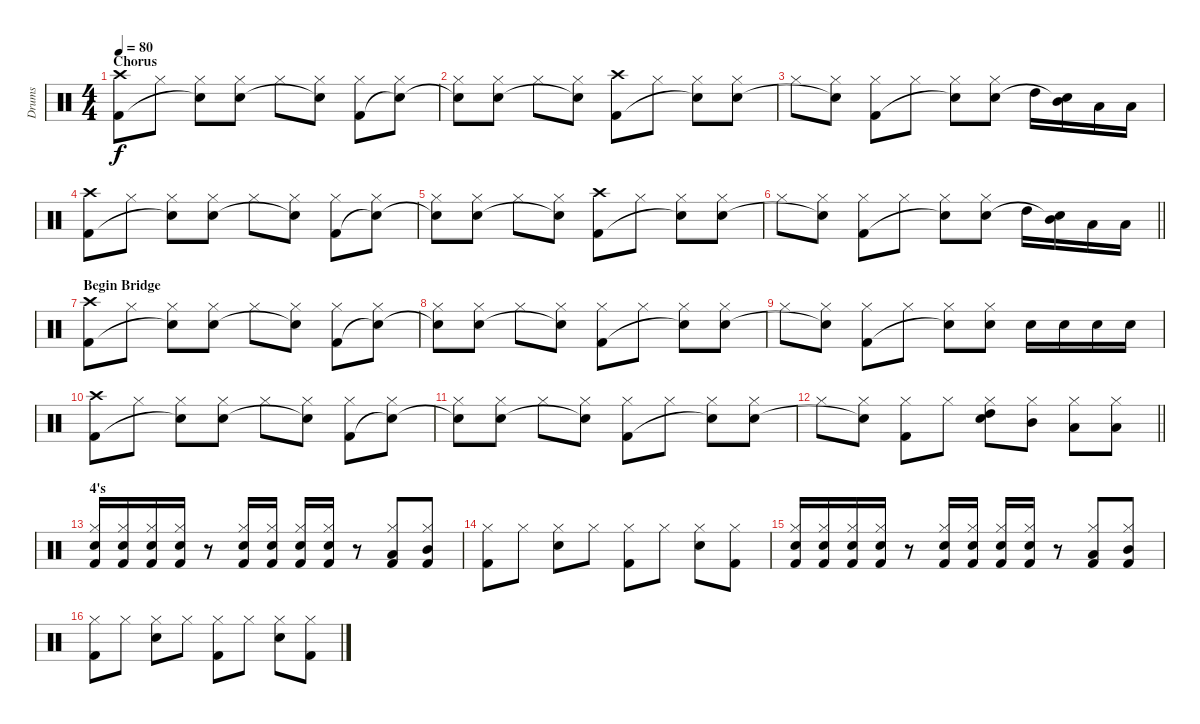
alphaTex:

\track ("Drums" "Drums") {instrument percussion}
\staff {score}
\articulation defaults
\ts (4 4)
\section ("" "Chorus")
\tempo 80
\clef neutral
\ks c
("Crash high (hit)" "Kick (hit) 2").8{dy f} "Hi-Hat (closed)".8 ("Hi-Hat (closed)" "Snare (hit)"{t}).8 ("Hi-Hat (closed)" "Electric Snare (hit)").8 "Hi-Hat (closed)".8 ("Hi-Hat (closed)" "Snare (hit)"{t}).8 ("Hi-Hat (closed)" "Kick (hit) 2").8 ("Hi-Hat (closed)" "Snare (hit)"{t}).8 |
("Hi-Hat (closed)" "Snare (hit)"{t}).8 ("Hi-Hat (closed)" "Electric Snare (hit)").8 "Hi-Hat (closed)".8 ("Hi-Hat (closed)" "Snare (hit)"{t}).8 ("Crash high (hit)" "Kick (hit) 2").8 "Hi-Hat (closed)".8 ("Hi-Hat (closed)" "Snare (hit)"{t}).8 ("Hi-Hat (closed)" "Electric Snare (hit)").8 |
"Hi-Hat (closed)".8 ("Hi-Hat (closed)" "Snare (hit)"{t}).8 ("Hi-Hat (closed)" "Kick (hit) 2").8 "Hi-Hat (closed)".8 ("Hi-Hat (closed)" "Snare (hit)"{t}).8 ("Hi-Hat (closed)" "Electric Snare (hit)").8 "High Tom (hit)".16 ("Mid Tom (hit)" "Snare (hit)"{t}).16 "Low Tom (hit)".16 "Low Tom (hit)".16 |
("Crash high (hit)" "Kick (hit) 2").8 "Hi-Hat (closed)".8 ("Hi-Hat (closed)" "Snare (hit)"{t}).8 ("Hi-Hat (closed)" "Electric Snare (hit)").8 "Hi-Hat (closed)".8 ("Hi-Hat (closed)" "Snare (hit)"{t}).8 ("Hi-Hat (closed)" "Kick (hit) 2").8 ("Hi-Hat (closed)" "Snare (hit)"{t}).8 |
("Hi-Hat (closed)" "Snare (hit)"{t}).8 ("Hi-Hat (closed)" "Electric Snare (hit)").8 "Hi-Hat (closed)".8 ("Hi-Hat (closed)" "Snare (hit)"{t}).8 ("Crash high (hit)" "Kick (hit) 2").8 "Hi-Hat (closed)".8 ("Hi-Hat (closed)" "Snare (hit)"{t}).8 ("Hi-Hat (closed)" "Electric Snare (hit)").8 |
\barLineRight lightlight "Hi-Hat (closed)".8
("Hi-Hat (closed)" "Snare (hit)"{t}).8 ("Hi-Hat (closed)" "Kick (hit) 2").8 "Hi-Hat (closed)".8 ("Hi-Hat (closed)" "Snare (hit)"{t}).8 ("Hi-Hat (closed)" "Electric Snare (hit)").8 "High Tom (hit)".16 ("Mid Tom (hit)" "Snare (hit)"{t}).16 "Low Tom (hit)".16 "Low Tom (hit)".16 |
\section ("" "Begin Bridge")
("Crash high (hit)" "Kick (hit) 2").8 "Hi-Hat (closed)".8 ("Hi-Hat (closed)" "Snare (hit)"{t}).8 ("Hi-Hat (closed)" "Electric Snare (hit)").8 "Hi-Hat (closed)".8 ("Hi-Hat (closed)" "Snare (hit)"{t}).8 ("Hi-Hat (closed)" "Kick (hit) 2").8 ("Hi-Hat (closed)" "Snare (hit)"{t}).8 |
("Hi-Hat (closed)" "Snare (hit)"{t}).8 ("Hi-Hat (closed)" "Electric Snare (hit)").8 "Hi-Hat (closed)".8 ("Hi-Hat (closed)" "Snare (hit)"{t}).8 ("Hi-Hat (closed)" "Kick (hit) 2").8 "Hi-Hat (closed)".8 ("Hi-Hat (closed)" "Snare (hit)"{t}).8 ("Hi-Hat (closed)" "Electric Snare (hit)").8 |
"Hi-Hat (closed)".8 ("Hi-Hat (closed)" "Snare (hit)"{t}).8 ("Hi-Hat (closed)" "Kick (hit) 2").8 "Hi-Hat (closed)".8 ("Hi-Hat (closed)" "Snare (hit)"{t}).8 ("Hi-Hat (closed)" "Electric Snare (hit)").8 "Electric Snare (hit)".16 "Electric Snare (hit)".16 "Electric Snare (hit)".16 "Electric Snare (hit)".16 |
("Crash high (hit)" "Kick (hit) 2").8 "Hi-Hat (closed)".8 ("Hi-Hat (closed)" "Snare (hit)"{t}).8 ("Hi-Hat (closed)" "Electric Snare (hit)").8 "Hi-Hat (closed)".8 ("Hi-Hat (closed)" "Snare (hit)"{t}).8 ("Hi-Hat (closed)" "Kick (hit) 2").8 ("Hi-Hat (closed)" "Snare (hit)"{t}).8 |
("Hi-Hat (closed)" "Snare (hit)"{t}).8 ("Hi-Hat (closed)" "Electric Snare (hit)").8 "Hi-Hat (closed)".8 ("Hi-Hat (closed)" "Snare (hit)"{t}).8 ("Hi-Hat (closed)" "Kick (hit) 2").8 "Hi-Hat (closed)".8 ("Hi-Hat (closed)" "Snare (hit)"{t}).8 ("Hi-Hat (closed)" "Electric Snare (hit)").8 |
\barLineRight lightlight "Hi-Hat (closed)".8
("Hi-Hat (closed)" "Snare (hit)"{t}).8 ("Hi-Hat (closed)" "Kick (hit) 2").8 "Hi-Hat (closed)".8 ("Hi-Hat (closed)" "High Tom (hit)" "Snare (hit)").8 ("Hi-Hat (closed)" "Mid Tom (hit)").8 ("Hi-Hat (closed)" "Low Tom (hit)").8 ("Hi-Hat (closed)" "Low Tom (hit)").8 |
\section ("" "4's")
("Hi-Hat (closed)" "Electric Snare (hit)" "Kick (hit) 2").16 ("Hi-Hat (closed)" "Electric Snare (hit)" "Kick (hit) 2").16 ("Hi-Hat (closed)" "Electric Snare (hit)" "Kick (hit) 2").16 ("Hi-Hat (closed)" "Electric Snare (hit)" "Kick (hit) 2").16 r.8 ("Hi-Hat (closed)" "Electric Snare (hit)" "Kick (hit) 2").16 ("Hi-Hat (closed)" "Electric Snare (hit)" "Kick (hit) 2").16 ("Hi-Hat (closed)" "Electric Snare (hit)" "Kick (hit) 2").16 ("Hi-Hat (closed)" "Electric Snare (hit)" "Kick (hit) 2").16 r.8 ("Hi-Hat (closed)" "Low Tom (hit)" "Kick (hit) 2").8 ("Hi-Hat (closed)" "Mid Tom (hit)" "Kick (hit) 2").8 |
("Hi-Hat (closed)" "Kick (hit) 2").8 "Hi-Hat (closed)".8 ("Hi-Hat (closed)" "Electric Snare (hit)").8 "Hi-Hat (closed)".8 ("Hi-Hat (closed)" "Kick (hit) 2").8 "Hi-Hat (closed)".8 ("Hi-Hat (closed)" "Electric Snare (hit)").8 ("Hi-Hat (closed)" "Kick (hit) 2").8 |
("Hi-Hat (closed)" "Electric Snare (hit)" "Kick (hit) 2").16 ("Hi-Hat (closed)" "Electric Snare (hit)" "Kick (hit) 2").16 ("Hi-Hat (closed)" "Electric Snare (hit)" "Kick (hit) 2").16 ("Hi-Hat (closed)" "Electric Snare (hit)" "Kick (hit) 2").16 r.8 ("Hi-Hat (closed)" "Electric Snare (hit)" "Kick (hit) 2").16 ("Hi-Hat (closed)" "Electric Snare (hit)" "Kick (hit) 2").16 ("Hi-Hat (closed)" "Electric Snare (hit)" "Kick (hit) 2").16 ("Hi-Hat (closed)" "Electric Snare (hit)" "Kick (hit) 2").16 r.8 ("Hi-Hat (closed)" "Low Tom (hit)" "Kick (hit) 2").8 ("Hi-Hat (closed)" "Mid Tom (hit)" "Kick (hit) 2").8 |
("Hi-Hat (closed)" "Kick (hit) 2").8 "Hi-Hat (closed)".8 ("Hi-Hat (closed)" "Electric Snare (hit)").8 "Hi-Hat (closed)".8 ("Hi-Hat (closed)" "Kick (hit) 2").8 "Hi-Hat (closed)".8 ("Hi-Hat (closed)" "Electric Snare (hit)").8 ("Hi-Hat (closed)" "Kick (hit) 2").8
